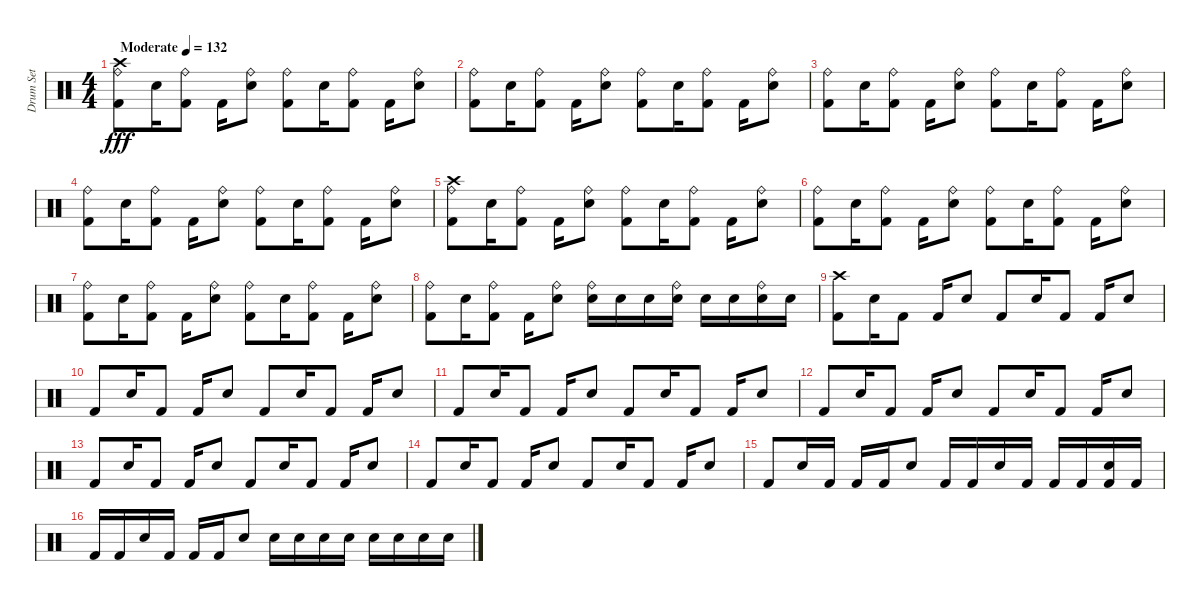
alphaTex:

\track ("Drum Set" "Drum Set") {instrument percussion}
\staff {score}
\articulation defaults
\ts (4 4)
\tempo (132 "Moderate")
\clef neutral
\ks c
("Kick (hit) 2" "Ride (bell)" "Crash high (hit)").8{dy fff} "Electric Snare (hit)".16 ("Ride (bell)" "Kick (hit) 2").8 "Kick (hit) 2".16 ("Electric Snare (hit)" "Ride (bell)").8 ("Kick (hit) 2" "Ride (bell)").8 "Electric Snare (hit)".16 ("Ride (bell)" "Kick (hit) 2").8 "Kick (hit) 2".16 ("Electric Snare (hit)" "Ride (bell)").8 |
("Kick (hit) 2" "Ride (bell)").8 "Electric Snare (hit)".16 ("Ride (bell)" "Kick (hit) 2").8 "Kick (hit) 2".16 ("Electric Snare (hit)" "Ride (bell)").8 ("Kick (hit) 2" "Ride (bell)").8 "Electric Snare (hit)".16 ("Ride (bell)" "Kick (hit) 2").8 "Kick (hit) 2".16 ("Electric Snare (hit)" "Ride (bell)").8 |
("Kick (hit) 2" "Ride (bell)").8 "Electric Snare (hit)".16 ("Ride (bell)" "Kick (hit) 2").8 "Kick (hit) 2".16 ("Electric Snare (hit)" "Ride (bell)").8 ("Kick (hit) 2" "Ride (bell)").8 "Electric Snare (hit)".16 ("Ride (bell)" "Kick (hit) 2").8 "Kick (hit) 2".16 ("Electric Snare (hit)" "Ride (bell)").8 |
("Kick (hit) 2" "Ride (bell)").8 "Electric Snare (hit)".16 ("Ride (bell)" "Kick (hit) 2").8 "Kick (hit) 2".16 ("Electric Snare (hit)" "Ride (bell)").8 ("Kick (hit) 2" "Ride (bell)").8 "Electric Snare (hit)".16 ("Ride (bell)" "Kick (hit) 2").8 "Kick (hit) 2".16 ("Electric Snare (hit)" "Ride (bell)").8 |
("Kick (hit) 2" "Ride (bell)" "Crash high (hit)").8 "Electric Snare (hit)".16 ("Ride (bell)" "Kick (hit) 2").8 "Kick (hit) 2".16 ("Electric Snare (hit)" "Ride (bell)").8 ("Kick (hit) 2" "Ride (bell)").8 "Electric Snare (hit)".16 ("Ride (bell)" "Kick (hit) 2").8 "Kick (hit) 2".16 ("Electric Snare (hit)" "Ride (bell)").8 |
("Kick (hit) 2" "Ride (bell)").8 "Electric Snare (hit)".16 ("Ride (bell)" "Kick (hit) 2").8 "Kick (hit) 2".16 ("Electric Snare (hit)" "Ride (bell)").8 ("Kick (hit) 2" "Ride (bell)").8 "Electric Snare (hit)".16 ("Ride (bell)" "Kick (hit) 2").8 "Kick (hit) 2".16 ("Electric Snare (hit)" "Ride (bell)").8 |
("Kick (hit) 2" "Ride (bell)").8 "Electric Snare (hit)".16 ("Ride (bell)" "Kick (hit) 2").8 "Kick (hit) 2".16 ("Electric Snare (hit)" "Ride (bell)").8 ("Kick (hit) 2" "Ride (bell)").8 "Electric Snare (hit)".16 ("Kick (hit) 2" "Ride (bell)").8 "Kick (hit) 2".16 ("Electric Snare (hit)" "Ride (bell)").8 |
("Kick (hit) 2" "Ride (bell)").8 "Electric Snare (hit)".16 ("Ride (bell)" "Kick (hit) 2").8 "Kick (hit) 2".16 ("Electric Snare (hit)" "Ride (bell)").8 ("Ride (bell)" "Electric Snare (hit)").16 "Electric Snare (hit)".16 "Electric Snare (hit)".16 ("Ride (bell)" "Electric Snare (hit)").16 "Electric Snare (hit)".16 "Electric Snare (hit)".16 ("Ride (bell)" "Electric Snare (hit)").16 "Electric Snare (hit)".16 |
("Kick (hit) 2" "Crash high (hit)").8 "Electric Snare (hit)".16 "Kick (hit) 2".8 "Kick (hit) 2".16 "Electric Snare (hit)".8 "Kick (hit) 2".8 "Electric Snare (hit)".16 "Kick (hit) 2".8 "Kick (hit) 2".16 "Electric Snare (hit)".8 |
"Kick (hit) 2".8 "Electric Snare (hit)".16 "Kick (hit) 2".8 "Kick (hit) 2".16 "Electric Snare (hit)".8 "Kick (hit) 2".8 "Electric Snare (hit)".16 "Kick (hit) 2".8 "Kick (hit) 2".16 "Electric Snare (hit)".8 |
"Kick (hit) 2".8 "Electric Snare (hit)".16 "Kick (hit) 2".8 "Kick (hit) 2".16 "Electric Snare (hit)".8 "Kick (hit) 2".8 "Electric Snare (hit)".16 "Kick (hit) 2".8 "Kick (hit) 2".16 "Electric Snare (hit)".8 |
"Kick (hit) 2".8 "Electric Snare (hit)".16 "Kick (hit) 2".8 "Kick (hit) 2".16 "Electric Snare (hit)".8 "Kick (hit) 2".8 "Electric Snare (hit)".16 "Kick (hit) 2".8 "Kick (hit) 2".16 "Electric Snare (hit)".8 |
"Kick (hit) 2".8 "Electric Snare (hit)".16 "Kick (hit) 2".8 "Kick (hit) 2".16 "Electric Snare (hit)".8 "Kick (hit) 2".8 "Electric Snare (hit)".16 "Kick (hit) 2".8 "Kick (hit) 2".16 "Electric Snare (hit)".8 |
"Kick (hit) 2".8 "Electric Snare (hit)".16 "Kick (hit) 2".8 "Kick (hit) 2".16 "Electric Snare (hit)".8 "Kick (hit) 2".8 "Electric Snare (hit)".16 "Kick (hit) 2".8 "Kick (hit) 2".16 "Electric Snare (hit)".8 |
"Kick (hit) 2".8 "Electric Snare (hit)".16 "Kick (hit) 2".16 "Kick (hit) 2".16 "Kick (hit) 2".16 "Electric Snare (hit)".8 "Kick (hit) 2".16 "Kick (hit) 2".16 "Electric Snare (hit)".16 "Kick (hit) 2".16 "Kick (hit) 2".16 "Kick (hit) 2".16 ("Electric Snare (hit)" "Kick (hit) 2").16 "Kick (hit) 2".16 |
"Kick (hit) 2".16 "Kick (hit) 2".16 "Electric Snare (hit)".16 "Kick (hit) 2".16 "Kick (hit) 2".16 "Kick (hit) 2".16 "Electric Snare (hit)".8 "Electric Snare (hit)".16 "Electric Snare (hit)".16 "Electric Snare (hit)".16 "Electric Snare (hit)".16 "Electric Snare (hit)".16 "Electric Snare (hit)".16 "Electric Snare (hit)".16 "Electric Snare (hit)".16
